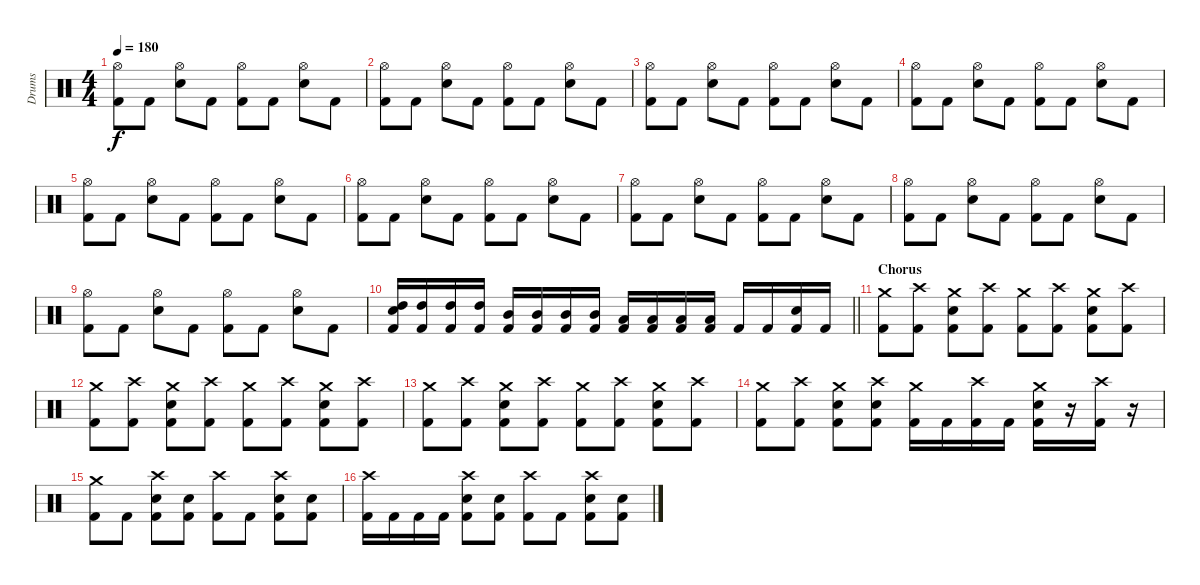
\track ("Drums" "Drums") {instrument percussion}
\staff {score}
\articulation defaults
\ts (4 4)
\tempo 180
\clef neutral
\ks c
("Hi-Hat (open)" "Kick (hit) 2").8{dy f} "Kick (hit) 2".8 ("Hi-Hat (open)" "Electric Snare (hit)").8 "Kick (hit) 2".8 ("Hi-Hat (open)" "Kick (hit) 2").8 "Kick (hit) 2".8 ("Hi-Hat (open)" "Electric Snare (hit)").8 "Kick (hit) 2".8 |
("Hi-Hat (open)" "Kick (hit) 2").8 "Kick (hit) 2".8 ("Hi-Hat (open)" "Electric Snare (hit)").8 "Kick (hit) 2".8 ("Hi-Hat (open)" "Kick (hit) 2").8 "Kick (hit) 2".8 ("Hi-Hat (open)" "Electric Snare (hit)").8 "Kick (hit) 2".8 |
("Hi-Hat (open)" "Kick (hit) 2").8 "Kick (hit) 2".8 ("Hi-Hat (open)" "Electric Snare (hit)").8 "Kick (hit) 2".8 ("Hi-Hat (open)" "Kick (hit) 2").8 "Kick (hit) 2".8 ("Hi-Hat (open)" "Electric Snare (hit)").8 "Kick (hit) 2".8 |
("Hi-Hat (open)" "Kick (hit) 2").8 "Kick (hit) 2".8 ("Hi-Hat (open)" "Electric Snare (hit)").8 "Kick (hit) 2".8 ("Hi-Hat (open)" "Kick (hit) 2").8 "Kick (hit) 2".8 ("Hi-Hat (open)" "Electric Snare (hit)").8 "Kick (hit) 2".8 |
("Hi-Hat (open)" "Kick (hit) 2").8 "Kick (hit) 2".8 ("Hi-Hat (open)" "Electric Snare (hit)").8 "Kick (hit) 2".8 ("Hi-Hat (open)" "Kick (hit) 2").8 "Kick (hit) 2".8 ("Hi-Hat (open)" "Electric Snare (hit)").8 "Kick (hit) 2".8 |
("Hi-Hat (open)" "Kick (hit) 2").8 "Kick (hit) 2".8 ("Hi-Hat (open)" "Electric Snare (hit)").8 "Kick (hit) 2".8 ("Hi-Hat (open)" "Kick (hit) 2").8 "Kick (hit) 2".8 ("Hi-Hat (open)" "Electric Snare (hit)").8 "Kick (hit) 2".8 |
("Hi-Hat (open)" "Kick (hit) 2").8 "Kick (hit) 2".8 ("Hi-Hat (open)" "Electric Snare (hit)").8 "Kick (hit) 2".8 ("Hi-Hat (open)" "Kick (hit) 2").8 "Kick (hit) 2".8 ("Hi-Hat (open)" "Electric Snare (hit)").8 "Kick (hit) 2".8 |
("Hi-Hat (open)" "Kick (hit) 2").8 "Kick (hit) 2".8 ("Hi-Hat (open)" "Electric Snare (hit)").8 "Kick (hit) 2".8 ("Hi-Hat (open)" "Kick (hit) 2").8 "Kick (hit) 2".8 ("Hi-Hat (open)" "Electric Snare (hit)").8 "Kick (hit) 2".8 |
("Hi-Hat (open)" "Kick (hit) 2").8 "Kick (hit) 2".8 ("Hi-Hat (open)" "Electric Snare (hit)").8 "Kick (hit) 2".8 ("Hi-Hat (open)" "Kick (hit) 2").8 "Kick (hit) 2".8 ("Hi-Hat (open)" "Electric Snare (hit)").8 "Kick (hit) 2".8 |
\barLineRight lightlight
("High Tom (hit)" "Electric Snare (hit)" "Kick (hit) 2").16 ("High Tom (hit)" "Kick (hit) 2").16 ("High Tom (hit)" "Kick (hit) 2").16 ("High Tom (hit)" "Kick (hit) 2").16 ("Mid Tom (hit)" "Kick (hit) 2").16 ("Mid Tom (hit)" "Kick (hit) 2").16 ("Mid Tom (hit)" "Kick (hit) 2").16 ("Mid Tom (hit)" "Kick (hit) 2").16 ("Low Tom (hit)" "Kick (hit) 2").16 ("Low Tom (hit)" "Kick (hit) 2").16 ("Low Tom (hit)" "Kick (hit) 2").16 ("Low Tom (hit)" "Kick (hit) 2").16 "Kick (hit) 2".16 "Kick (hit) 2".16 ("Electric Snare (hit)" "Kick (hit) 2").16 "Kick (hit) 2".16 |
\section ("" "Chorus")
("Crash medium (hit)" "Kick (hit) 2").8 ("Crash high (hit)" "Kick (hit) 2").8 ("Crash medium (hit)" "Electric Snare (hit)" "Kick (hit) 2").8 ("Crash high (hit)" "Kick (hit) 2").8 ("Crash medium (hit)" "Kick (hit) 2").8 ("Crash high (hit)" "Kick (hit) 2").8 ("Crash medium (hit)" "Electric Snare (hit)" "Kick (hit) 2").8 ("Crash high (hit)" "Kick (hit) 2").8 |
("Crash medium (hit)" "Kick (hit) 2").8 ("Crash high (hit)" "Kick (hit) 2").8 ("Crash medium (hit)" "Electric Snare (hit)" "Kick (hit) 2").8 ("Crash high (hit)" "Kick (hit) 2").8 ("Crash medium (hit)" "Kick (hit) 2").8 ("Crash high (hit)" "Kick (hit) 2").8 ("Crash medium (hit)" "Electric Snare (hit)" "Kick (hit) 2").8 ("Crash high (hit)" "Kick (hit) 2").8 |
("Crash medium (hit)" "Kick (hit) 2").8 ("Crash high (hit)" "Kick (hit) 2").8 ("Crash medium (hit)" "Electric Snare (hit)" "Kick (hit) 2").8 ("Crash high (hit)" "Kick (hit) 2").8 ("Crash medium (hit)" "Kick (hit) 2").8 ("Crash high (hit)" "Kick (hit) 2").8 ("Crash medium (hit)" "Electric Snare (hit)" "Kick (hit) 2").8 ("Crash high (hit)" "Kick (hit) 2").8 |
("Crash medium (hit)" "Kick (hit) 2").8 ("Crash high (hit)" "Kick (hit) 2").8 ("Crash medium (hit)" "Electric Snare (hit)" "Kick (hit) 2").8 ("Crash high (hit)" "Electric Snare (hit)" "Kick (hit) 2").8 ("Crash medium (hit)" "Kick (hit) 2").16 "Kick (hit) 2".16 ("Crash high (hit)" "Kick (hit) 2").16 "Kick (hit) 2".16 ("Crash medium (hit)" "Electric Snare (hit)" "Kick (hit) 2").16 r.16 ("Crash high (hit)" "Kick (hit) 2").16 r.16 |
("Crash medium (hit)" "Kick (hit) 2").8 "Kick (hit) 2".8 ("Crash high (hit)" "Electric Snare (hit)" "Kick (hit) 2").8 ("Electric Snare (hit)" "Kick (hit) 2").8 ("Crash high (hit)" "Kick (hit) 2").8 "Kick (hit) 2".8 ("Crash high (hit)" "Electric Snare (hit)" "Kick (hit) 2").8 ("Electric Snare (hit)" "Kick (hit) 2").8 |
("Crash high (hit)" "Kick (hit) 2").16 "Kick (hit) 2".16 "Kick (hit) 2".16 "Kick (hit) 2".16 ("Crash high (hit)" "Electric Snare (hit)" "Kick (hit) 2").8 ("Electric Snare (hit)" "Kick (hit) 2").8 ("Crash high (hit)" "Kick (hit) 2").8 "Kick (hit) 2".8 ("Crash high (hit)" "Electric Snare (hit)" "Kick (hit) 2").8 ("Electric Snare (hit)" "Kick (hit) 2").8
